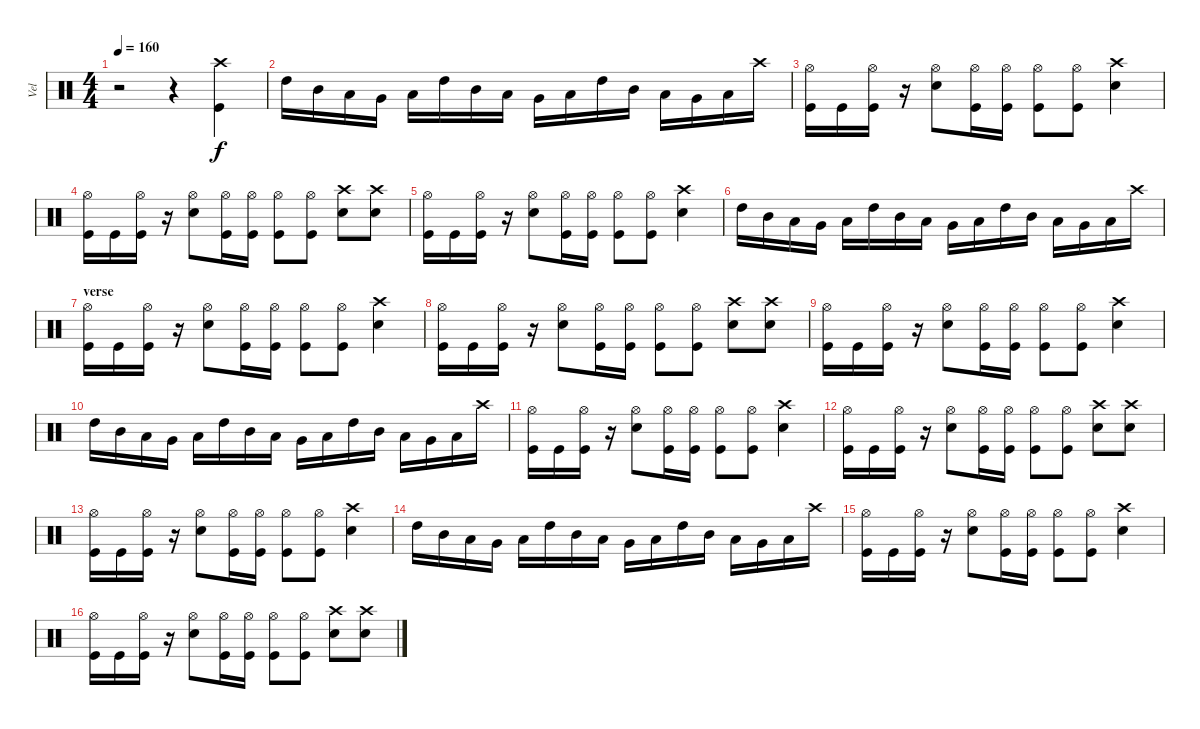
\track ("Vel" "Vel") {instrument percussion}
\staff {score}
\articulation defaults
\ts (4 4)
\tempo 160
\clef neutral
\ks c
r.2{dy f} r.4 ("Crash high (hit)" "Kick (hit)").4 |
"High Tom (hit)".16 "Mid Tom (hit)".16 "Low Tom (hit)".16 "Very Low Tom (hit)".16 "Low Floor Tom (hit)".16 "High Tom (hit)".16 "Mid Tom (hit)".16 "Low Tom (hit)".16 "Very Low Tom (hit)".16 "Low Floor Tom (hit)".16 "High Tom (hit)".16 "Mid Tom (hit)".16 "Low Tom (hit)".16 "Very Low Tom (hit)".16 "Low Floor Tom (hit)".16 "Crash high (hit)".16 |
("Hi-Hat (open)" "Kick (hit)").16 "Kick (hit)".16 ("Hi-Hat (open)" "Kick (hit)").16 r.16 ("Hi-Hat (open)" "Electric Snare (hit)").8 ("Hi-Hat (open)" "Kick (hit)").16 ("Hi-Hat (open)" "Kick (hit)").16 ("Hi-Hat (open)" "Kick (hit)").8 ("Hi-Hat (open)" "Kick (hit)").8 ("Crash high (hit)" "Electric Snare (hit)").4 |
("Hi-Hat (open)" "Kick (hit)").16 "Kick (hit)".16 ("Hi-Hat (open)" "Kick (hit)").16 r.16 ("Hi-Hat (open)" "Electric Snare (hit)").8 ("Hi-Hat (open)" "Kick (hit)").16 ("Hi-Hat (open)" "Kick (hit)").16 ("Hi-Hat (open)" "Kick (hit)").8 ("Hi-Hat (open)" "Kick (hit)").8 ("Crash high (hit)" "Electric Snare (hit)").8 ("Crash high (hit)" "Electric Snare (hit)").8 |
("Hi-Hat (open)" "Kick (hit)").16 "Kick (hit)".16 ("Hi-Hat (open)" "Kick (hit)").16 r.16 ("Hi-Hat (open)" "Electric Snare (hit)").8 ("Hi-Hat (open)" "Kick (hit)").16 ("Hi-Hat (open)" "Kick (hit)").16 ("Hi-Hat (open)" "Kick (hit)").8 ("Hi-Hat (open)" "Kick (hit)").8 ("Crash high (hit)" "Electric Snare (hit)").4 |
"High Tom (hit)".16 "Mid Tom (hit)".16 "Low Tom (hit)".16 "Very Low Tom (hit)".16 "Low Floor Tom (hit)".16 "High Tom (hit)".16 "Mid Tom (hit)".16 "Low Tom (hit)".16 "Very Low Tom (hit)".16 "Low Floor Tom (hit)".16 "High Tom (hit)".16 "Mid Tom (hit)".16 "Low Tom (hit)".16 "Very Low Tom (hit)".16 "Low Floor Tom (hit)".16 "Crash high (hit)".16 |
\section ("" "verse")
("Hi-Hat (open)" "Kick (hit)").16 "Kick (hit)".16 ("Hi-Hat (open)" "Kick (hit)").16 r.16 ("Hi-Hat (open)" "Electric Snare (hit)").8 ("Hi-Hat (open)" "Kick (hit)").16 ("Hi-Hat (open)" "Kick (hit)").16 ("Hi-Hat (open)" "Kick (hit)").8 ("Hi-Hat (open)" "Kick (hit)").8 ("Crash high (hit)" "Electric Snare (hit)").4 |
("Hi-Hat (open)" "Kick (hit)").16 "Kick (hit)".16 ("Hi-Hat (open)" "Kick (hit)").16 r.16 ("Hi-Hat (open)" "Electric Snare (hit)").8 ("Hi-Hat (open)" "Kick (hit)").16 ("Hi-Hat (open)" "Kick (hit)").16 ("Hi-Hat (open)" "Kick (hit)").8 ("Hi-Hat (open)" "Kick (hit)").8 ("Crash high (hit)" "Electric Snare (hit)").8 ("Crash high (hit)" "Electric Snare (hit)").8 |
("Hi-Hat (open)" "Kick (hit)").16 "Kick (hit)".16 ("Hi-Hat (open)" "Kick (hit)").16 r.16 ("Hi-Hat (open)" "Electric Snare (hit)").8 ("Hi-Hat (open)" "Kick (hit)").16 ("Hi-Hat (open)" "Kick (hit)").16 ("Hi-Hat (open)" "Kick (hit)").8 ("Hi-Hat (open)" "Kick (hit)").8 ("Crash high (hit)" "Electric Snare (hit)").4 |
"High Tom (hit)".16 "Mid Tom (hit)".16 "Low Tom (hit)".16 "Very Low Tom (hit)".16 "Low Floor Tom (hit)".16 "High Tom (hit)".16 "Mid Tom (hit)".16 "Low Tom (hit)".16 "Very Low Tom (hit)".16 "Low Floor Tom (hit)".16 "High Tom (hit)".16 "Mid Tom (hit)".16 "Low Tom (hit)".16 "Very Low Tom (hit)".16 "Low Floor Tom (hit)".16 "Crash high (hit)".16 |
("Hi-Hat (open)" "Kick (hit)").16 "Kick (hit)".16 ("Hi-Hat (open)" "Kick (hit)").16 r.16 ("Hi-Hat (open)" "Electric Snare (hit)").8 ("Hi-Hat (open)" "Kick (hit)").16 ("Hi-Hat (open)" "Kick (hit)").16 ("Hi-Hat (open)" "Kick (hit)").8 ("Hi-Hat (open)" "Kick (hit)").8 ("Crash high (hit)" "Electric Snare (hit)").4 |
("Hi-Hat (open)" "Kick (hit)").16 "Kick (hit)".16 ("Hi-Hat (open)" "Kick (hit)").16 r.16 ("Hi-Hat (open)" "Electric Snare (hit)").8 ("Hi-Hat (open)" "Kick (hit)").16 ("Hi-Hat (open)" "Kick (hit)").16 ("Hi-Hat (open)" "Kick (hit)").8 ("Hi-Hat (open)" "Kick (hit)").8 ("Crash high (hit)" "Electric Snare (hit)").8 ("Crash high (hit)" "Electric Snare (hit)").8 |
("Hi-Hat (open)" "Kick (hit)").16 "Kick (hit)".16 ("Hi-Hat (open)" "Kick (hit)").16 r.16 ("Hi-Hat (open)" "Electric Snare (hit)").8 ("Hi-Hat (open)" "Kick (hit)").16 ("Hi-Hat (open)" "Kick (hit)").16 ("Hi-Hat (open)" "Kick (hit)").8 ("Hi-Hat (open)" "Kick (hit)").8 ("Crash high (hit)" "Electric Snare (hit)").4 |
"High Tom (hit)".16 "Mid Tom (hit)".16 "Low Tom (hit)".16 "Very Low Tom (hit)".16 "Low Floor Tom (hit)".16 "High Tom (hit)".16 "Mid Tom (hit)".16 "Low Tom (hit)".16 "Very Low Tom (hit)".16 "Low Floor Tom (hit)".16 "High Tom (hit)".16 "Mid Tom (hit)".16 "Low Tom (hit)".16 "Very Low Tom (hit)".16 "Low Floor Tom (hit)".16 "Crash high (hit)".16 |
("Hi-Hat (open)" "Kick (hit)").16 "Kick (hit)".16 ("Hi-Hat (open)" "Kick (hit)").16 r.16 ("Hi-Hat (open)" "Electric Snare (hit)").8 ("Hi-Hat (open)" "Kick (hit)").16 ("Hi-Hat (open)" "Kick (hit)").16 ("Hi-Hat (open)" "Kick (hit)").8 ("Hi-Hat (open)" "Kick (hit)").8 ("Crash high (hit)" "Electric Snare (hit)").4 |
("Hi-Hat (open)" "Kick (hit)").16 "Kick (hit)".16 ("Hi-Hat (open)" "Kick (hit)").16 r.16 ("Hi-Hat (open)" "Electric Snare (hit)").8 ("Hi-Hat (open)" "Kick (hit)").16 ("Hi-Hat (open)" "Kick (hit)").16 ("Hi-Hat (open)" "Kick (hit)").8 ("Hi-Hat (open)" "Kick (hit)").8 ("Crash high (hit)" "Electric Snare (hit)").8 ("Crash high (hit)" "Electric Snare (hit)").8
